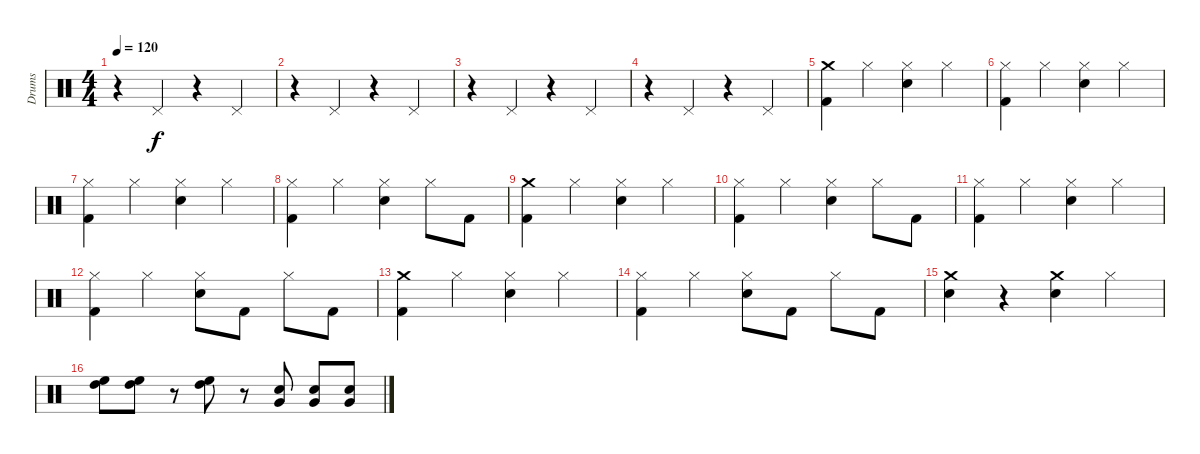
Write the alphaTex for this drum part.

\track ("Drums" "Drums") {instrument percussion}
\staff {score}
\articulation defaults
\ts (4 4)
\tempo 120
\clef neutral
\ks c
r.4{dy f} "Pedal Hi-Hat (hit)".4 r.4 "Pedal Hi-Hat (hit)".4 |
r.4 "Pedal Hi-Hat (hit)".4 r.4 "Pedal Hi-Hat (hit)".4 |
r.4 "Pedal Hi-Hat (hit)".4 r.4 "Pedal Hi-Hat (hit)".4 |
r.4 "Pedal Hi-Hat (hit)".4 r.4 "Pedal Hi-Hat (hit)".4 |
("Kick (hit) 2" "Crash medium (hit)").4 "Hi-Hat (closed)".4 ("Snare (hit) 2" "Hi-Hat (closed)").4 "Hi-Hat (closed)".4 |
("Kick (hit) 2" "Hi-Hat (closed)").4 "Hi-Hat (closed)".4 ("Snare (hit) 2" "Hi-Hat (closed)").4 "Hi-Hat (closed)".4 |
("Kick (hit) 2" "Hi-Hat (closed)").4 "Hi-Hat (closed)".4 ("Snare (hit) 2" "Hi-Hat (closed)").4 "Hi-Hat (closed)".4 |
("Kick (hit) 2" "Hi-Hat (closed)").4 "Hi-Hat (closed)".4 ("Snare (hit) 2" "Hi-Hat (closed)").4 "Hi-Hat (closed)".8 "Kick (hit) 2".8 |
("Crash medium (hit)" "Kick (hit) 2").4 "Hi-Hat (closed)".4 ("Snare (hit) 2" "Hi-Hat (closed)").4 "Hi-Hat (closed)".4 |
("Kick (hit) 2" "Hi-Hat (closed)").4 "Hi-Hat (closed)".4 ("Snare (hit) 2" "Hi-Hat (closed)").4 "Hi-Hat (closed)".8 "Kick (hit) 2".8 |
("Kick (hit) 2" "Hi-Hat (closed)").4 "Hi-Hat (closed)".4 ("Snare (hit) 2" "Hi-Hat (closed)").4 "Hi-Hat (closed)".4 |
("Kick (hit) 2" "Hi-Hat (closed)").4 "Hi-Hat (closed)".4 ("Snare (hit) 2" "Hi-Hat (closed)").8 "Kick (hit) 2".8 "Hi-Hat (closed)".8 "Kick (hit) 2".8 |
("Crash medium (hit)" "Kick (hit) 2").4 "Hi-Hat (closed)".4 ("Snare (hit) 2" "Hi-Hat (closed)").4 "Hi-Hat (closed)".4 |
("Kick (hit) 2" "Hi-Hat (closed)").4 "Hi-Hat (closed)".4 ("Snare (hit) 2" "Hi-Hat (closed)").8 "Kick (hit) 2".8 "Hi-Hat (closed)".8 "Kick (hit) 2".8 |
("Snare (hit) 2" "Crash medium (hit)").4 r.4 ("Crash medium (hit)" "Snare (hit) 2").4 "Hi-Hat (closed)".4 |
("High Floor Tom (hit)" "High Tom (hit)").8 ("High Tom (hit)" "High Floor Tom (hit)").8 r.8 ("High Floor Tom (hit)" "High Tom (hit)").8 r.8 ("Snare (hit) 2" "Very Low Tom (hit)").8 ("Snare (hit) 2" "Very Low Tom (hit)").8 ("Snare (hit) 2" "Very Low Tom (hit)").8
